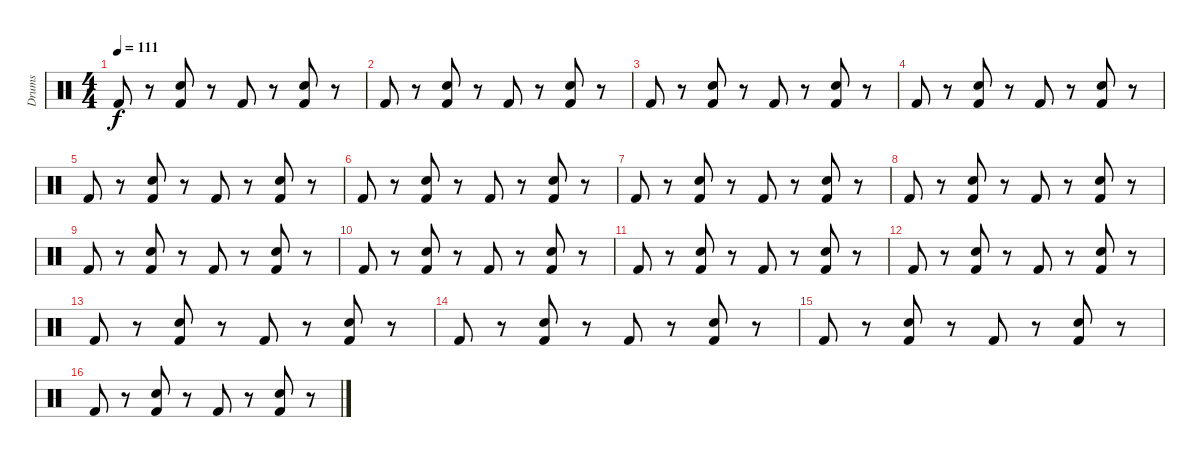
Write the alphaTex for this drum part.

\track ("Drums" "Drums") {instrument percussion}
\staff {score}
\articulation defaults
\ts (4 4)
\tempo 111
\clef neutral
\ks c "Kick (hit) 2".8{dy f}
r.8 ("Kick (hit) 2" "Electric Snare (hit)").8 r.8 "Kick (hit) 2".8 r.8 ("Kick (hit) 2" "Electric Snare (hit)").8 r.8 |
"Kick (hit) 2".8 r.8 ("Kick (hit) 2" "Electric Snare (hit)").8 r.8 "Kick (hit) 2".8 r.8 ("Kick (hit) 2" "Electric Snare (hit)").8 r.8 |
"Kick (hit) 2".8 r.8 ("Kick (hit) 2" "Electric Snare (hit)").8 r.8 "Kick (hit) 2".8 r.8 ("Kick (hit) 2" "Electric Snare (hit)").8 r.8 |
"Kick (hit) 2".8 r.8 ("Kick (hit) 2" "Electric Snare (hit)").8 r.8 "Kick (hit) 2".8 r.8 ("Kick (hit) 2" "Electric Snare (hit)").8 r.8 |
"Kick (hit) 2".8 r.8 ("Kick (hit) 2" "Electric Snare (hit)").8 r.8 "Kick (hit) 2".8 r.8 ("Kick (hit) 2" "Electric Snare (hit)").8 r.8 |
"Kick (hit) 2".8 r.8 ("Kick (hit) 2" "Electric Snare (hit)").8 r.8 "Kick (hit) 2".8 r.8 ("Kick (hit) 2" "Electric Snare (hit)").8 r.8 |
"Kick (hit) 2".8 r.8 ("Kick (hit) 2" "Electric Snare (hit)").8 r.8 "Kick (hit) 2".8 r.8 ("Kick (hit) 2" "Electric Snare (hit)").8 r.8 |
"Kick (hit) 2".8 r.8 ("Kick (hit) 2" "Electric Snare (hit)").8 r.8 "Kick (hit) 2".8 r.8 ("Kick (hit) 2" "Electric Snare (hit)").8 r.8 |
"Kick (hit) 2".8 r.8 ("Kick (hit) 2" "Electric Snare (hit)").8 r.8 "Kick (hit) 2".8 r.8 ("Kick (hit) 2" "Electric Snare (hit)").8 r.8 |
"Kick (hit) 2".8 r.8 ("Kick (hit) 2" "Electric Snare (hit)").8 r.8 "Kick (hit) 2".8 r.8 ("Kick (hit) 2" "Electric Snare (hit)").8 r.8 |
"Kick (hit) 2".8 r.8 ("Kick (hit) 2" "Electric Snare (hit)").8 r.8 "Kick (hit) 2".8 r.8 ("Kick (hit) 2" "Electric Snare (hit)").8 r.8 |
"Kick (hit) 2".8 r.8 ("Kick (hit) 2" "Electric Snare (hit)").8 r.8 "Kick (hit) 2".8 r.8 ("Kick (hit) 2" "Electric Snare (hit)").8 r.8 |
"Kick (hit) 2".8 r.8 ("Kick (hit) 2" "Electric Snare (hit)").8 r.8 "Kick (hit) 2".8 r.8 ("Kick (hit) 2" "Electric Snare (hit)").8 r.8 |
"Kick (hit) 2".8 r.8 ("Kick (hit) 2" "Electric Snare (hit)").8 r.8 "Kick (hit) 2".8 r.8 ("Kick (hit) 2" "Electric Snare (hit)").8 r.8 |
"Kick (hit) 2".8 r.8 ("Kick (hit) 2" "Electric Snare (hit)").8 r.8 "Kick (hit) 2".8 r.8 ("Kick (hit) 2" "Electric Snare (hit)").8 r.8 |
"Kick (hit) 2".8 r.8 ("Kick (hit) 2" "Electric Snare (hit)").8 r.8 "Kick (hit) 2".8 r.8 ("Kick (hit) 2" "Electric Snare (hit)").8 r.8
